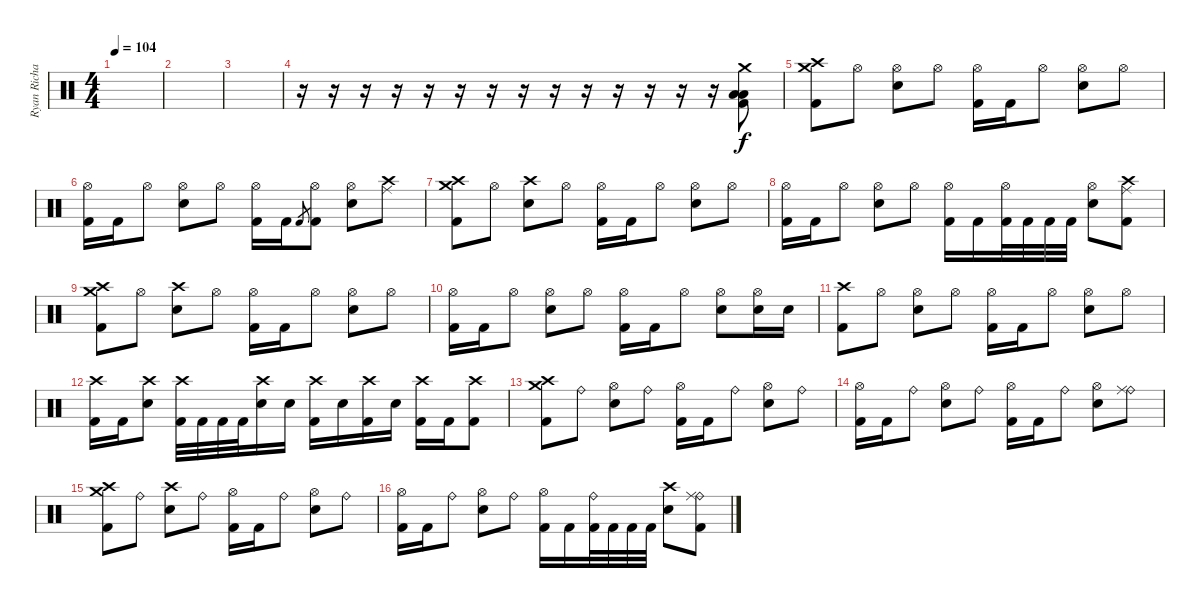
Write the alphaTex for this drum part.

\track ("Ryan Richards" "Ryan Richa") {instrument percussion}
\staff {score}
\articulation defaults
\ts (4 4)
\tempo 104
\clef neutral
\ks c
|
|
|
r.16 r.16 r.16 r.16 r.16 r.16 r.16 r.16 r.16 r.16 r.16 r.16 r.16 r.16 ("Crash medium (hit)" "Low Floor Tom (hit)" "Low Floor Tom (hit)" "Kick (hit) 2").8 |
("Crash high (hit)" "Crash medium (hit)" "Kick (hit) 2").8 "Hi-Hat (open)".8 ("Hi-Hat (open)" "Snare (hit) 2").8 "Hi-Hat (open)".8 ("Hi-Hat (open)" "Kick (hit) 2").16 "Kick (hit) 2".16 "Hi-Hat (open)".8 ("Hi-Hat (open)" "Snare (hit) 2").8 "Hi-Hat (open)".8 |
("Hi-Hat (open)" "Kick (hit) 2").16 "Kick (hit) 2".16 "Hi-Hat (open)".8 ("Hi-Hat (open)" "Snare (hit) 2").8 "Hi-Hat (open)".8 ("Hi-Hat (open)" "Kick (hit) 2").16 "Kick (hit) 2".16 "Kick (hit) 2".8{gr} ("Hi-Hat (open)" "Kick (hit) 2").8 ("Hi-Hat (open)" "Snare (hit) 2").8 ("Crash high (hit)" "Ride (middle)").8 |
("Crash high (hit)" "Crash medium (hit)" "Kick (hit) 2").8 "Hi-Hat (open)".8 ("Crash high (hit)" "Snare (hit) 2").8 "Hi-Hat (open)".8 ("Hi-Hat (open)" "Kick (hit) 2").16 "Kick (hit) 2".16 "Hi-Hat (open)".8 ("Hi-Hat (open)" "Snare (hit) 2").8 "Hi-Hat (open)".8 |
("Hi-Hat (open)" "Kick (hit) 2").16 "Kick (hit) 2".16 "Hi-Hat (open)".8 ("Hi-Hat (open)" "Snare (hit) 2").8 "Hi-Hat (open)".8 ("Hi-Hat (open)" "Kick (hit) 2").16 "Kick (hit) 2".16 ("Hi-Hat (open)" "Kick (hit) 2").32 "Kick (hit) 2".32 "Kick (hit) 2".32 "Kick (hit) 2".32 ("Hi-Hat (open)" "Snare (hit) 2").8 ("Crash high (hit)" "Ride (middle)" "Kick (hit) 2").8 |
("Crash high (hit)" "Crash medium (hit)" "Kick (hit) 2").8 "Hi-Hat (open)".8 ("Crash high (hit)" "Snare (hit) 2").8 "Hi-Hat (open)".8 ("Hi-Hat (open)" "Kick (hit) 2").16 "Kick (hit) 2".16 "Hi-Hat (open)".8 ("Hi-Hat (open)" "Snare (hit) 2").8 "Hi-Hat (open)".8 |
("Hi-Hat (open)" "Kick (hit) 2").16 "Kick (hit) 2".16 "Hi-Hat (open)".8 ("Hi-Hat (open)" "Snare (hit) 2").8 "Hi-Hat (open)".8 ("Hi-Hat (open)" "Kick (hit) 2").16 "Kick (hit) 2".16 "Hi-Hat (open)".8 ("Hi-Hat (open)" "Snare (hit) 2").8 ("Hi-Hat (open)" "Snare (hit) 2").16 "Snare (hit) 2".16 |
("Crash high (hit)" "Kick (hit) 2").8 "Hi-Hat (open)".8 ("Hi-Hat (open)" "Snare (hit) 2").8 "Hi-Hat (open)".8 ("Hi-Hat (open)" "Kick (hit) 2").16 "Kick (hit) 2".16 "Hi-Hat (open)".8 ("Hi-Hat (open)" "Snare (hit) 2").8 "Hi-Hat (open)".8 |
("Crash high (hit)" "Kick (hit) 2").16 "Kick (hit) 2".16 ("Crash high (hit)" "Snare (hit) 2").8 ("Crash high (hit)" "Kick (hit) 2").32 "Kick (hit) 2".32 "Kick (hit) 2".32 "Kick (hit) 2".32 ("Crash high (hit)" "Snare (hit) 2").16 "Snare (hit) 2".16 ("Crash high (hit)" "Kick (hit) 2").16 "Snare (hit) 2".16 ("Crash high (hit)" "Kick (hit) 2").16 "Snare (hit) 2".16 ("Crash high (hit)" "Kick (hit) 2").16 "Kick (hit) 2".16 ("Crash high (hit)" "Kick (hit) 2").8 |
("Crash high (hit)" "Crash medium (hit)" "Kick (hit) 2").8 "Ride (bell)".8 ("Hi-Hat (open)" "Snare (hit) 2").8 "Ride (bell)".8 ("Hi-Hat (open)" "Kick (hit) 2").16 "Kick (hit) 2".16 "Ride (bell)".8 ("Hi-Hat (open)" "Snare (hit) 2").8 "Ride (bell)".8 |
("Hi-Hat (open)" "Kick (hit) 2").16 "Kick (hit) 2".16 "Ride (bell)".8 ("Hi-Hat (open)" "Snare (hit) 2").8 "Ride (bell)".8 ("Hi-Hat (open)" "Kick (hit) 2").16 "Kick (hit) 2".16 "Ride (bell)".8 ("Hi-Hat (open)" "Snare (hit) 2").8 ("Ride (bell)" "Ride (middle)").8 |
("Crash high (hit)" "Crash medium (hit)" "Kick (hit) 2").8 "Ride (bell)".8 ("Crash high (hit)" "Snare (hit) 2").8 "Ride (bell)".8 ("Hi-Hat (open)" "Kick (hit) 2").16 "Kick (hit) 2".16 "Ride (bell)".8 ("Hi-Hat (open)" "Snare (hit) 2").8 "Ride (bell)".8 |
("Hi-Hat (open)" "Kick (hit) 2").16 "Kick (hit) 2".16 "Ride (bell)".8 ("Hi-Hat (open)" "Snare (hit) 2").8 "Ride (bell)".8 ("Hi-Hat (open)" "Kick (hit) 2").16 "Kick (hit) 2".16 ("Ride (bell)" "Kick (hit) 2").32 "Kick (hit) 2".32 "Kick (hit) 2".32 "Kick (hit) 2".32 ("Crash high (hit)" "Snare (hit) 2").8 ("Ride (bell)" "Ride (middle)" "Kick (hit) 2").8
